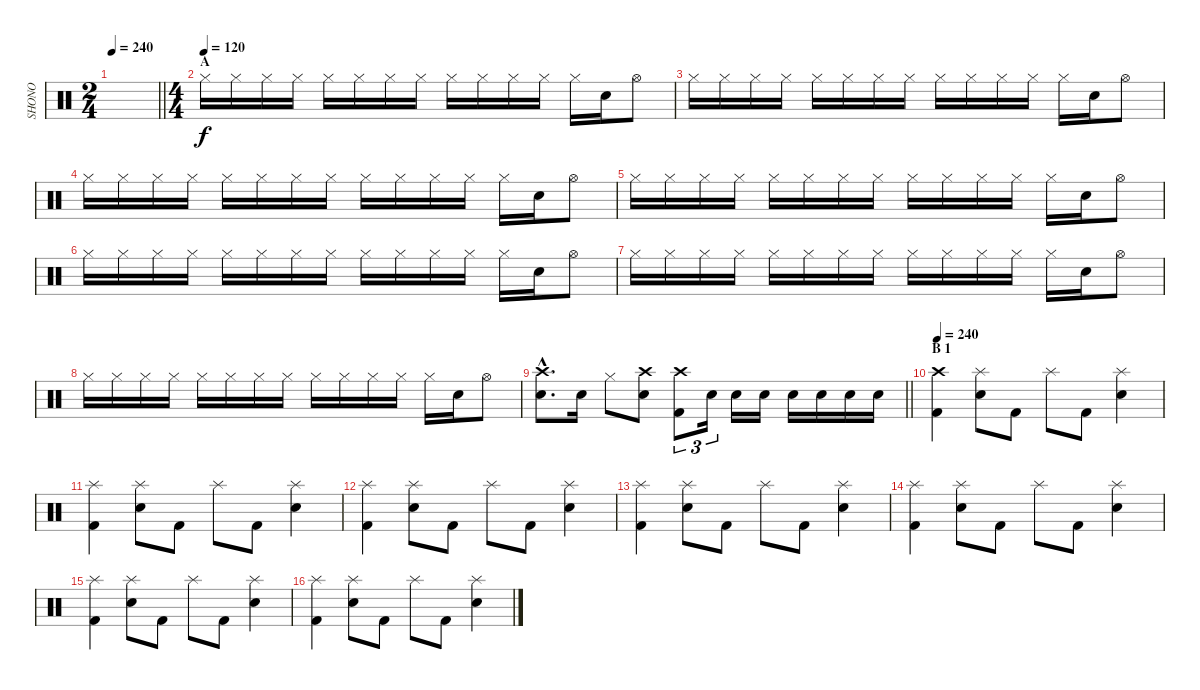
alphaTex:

\track ("SHONO" "SHONO") {instrument percussion}
\staff {score}
\articulation defaults
\ts (2 4)
\tempo 240
\clef neutral
\barLineRight lightlight
\ks c
|
\ts (4 4)
\section ("" "A")
\tempo (120)
"Hi-Hat (closed)".16 "Hi-Hat (closed)".16 "Hi-Hat (closed)".16 "Hi-Hat (closed)".16 "Hi-Hat (closed)".16 "Hi-Hat (closed)".16 "Hi-Hat (closed)".16 "Hi-Hat (closed)".16 "Hi-Hat (closed)".16 "Hi-Hat (closed)".16 "Hi-Hat (closed)".16 "Hi-Hat (closed)".16 "Hi-Hat (closed)".16 "Snare (hit) 2".16 "Hi-Hat (open)".8 |
"Hi-Hat (closed)".16 "Hi-Hat (closed)".16 "Hi-Hat (closed)".16 "Hi-Hat (closed)".16 "Hi-Hat (closed)".16 "Hi-Hat (closed)".16 "Hi-Hat (closed)".16 "Hi-Hat (closed)".16 "Hi-Hat (closed)".16 "Hi-Hat (closed)".16 "Hi-Hat (closed)".16 "Hi-Hat (closed)".16 "Hi-Hat (closed)".16 "Snare (hit) 2".16 "Hi-Hat (open)".8 |
"Hi-Hat (closed)".16 "Hi-Hat (closed)".16 "Hi-Hat (closed)".16 "Hi-Hat (closed)".16 "Hi-Hat (closed)".16 "Hi-Hat (closed)".16 "Hi-Hat (closed)".16 "Hi-Hat (closed)".16 "Hi-Hat (closed)".16 "Hi-Hat (closed)".16 "Hi-Hat (closed)".16 "Hi-Hat (closed)".16 "Hi-Hat (closed)".16 "Snare (hit) 2".16 "Hi-Hat (open)".8 |
"Hi-Hat (closed)".16 "Hi-Hat (closed)".16 "Hi-Hat (closed)".16 "Hi-Hat (closed)".16 "Hi-Hat (closed)".16 "Hi-Hat (closed)".16 "Hi-Hat (closed)".16 "Hi-Hat (closed)".16 "Hi-Hat (closed)".16 "Hi-Hat (closed)".16 "Hi-Hat (closed)".16 "Hi-Hat (closed)".16 "Hi-Hat (closed)".16 "Snare (hit) 2".16 "Hi-Hat (open)".8 |
"Hi-Hat (closed)".16 "Hi-Hat (closed)".16 "Hi-Hat (closed)".16 "Hi-Hat (closed)".16 "Hi-Hat (closed)".16 "Hi-Hat (closed)".16 "Hi-Hat (closed)".16 "Hi-Hat (closed)".16 "Hi-Hat (closed)".16 "Hi-Hat (closed)".16 "Hi-Hat (closed)".16 "Hi-Hat (closed)".16 "Hi-Hat (closed)".16 "Snare (hit) 2".16 "Hi-Hat (open)".8 |
"Hi-Hat (closed)".16 "Hi-Hat (closed)".16 "Hi-Hat (closed)".16 "Hi-Hat (closed)".16 "Hi-Hat (closed)".16 "Hi-Hat (closed)".16 "Hi-Hat (closed)".16 "Hi-Hat (closed)".16 "Hi-Hat (closed)".16 "Hi-Hat (closed)".16 "Hi-Hat (closed)".16 "Hi-Hat (closed)".16 "Hi-Hat (closed)".16 "Snare (hit) 2".16 "Hi-Hat (open)".8 |
"Hi-Hat (closed)".16 "Hi-Hat (closed)".16 "Hi-Hat (closed)".16 "Hi-Hat (closed)".16 "Hi-Hat (closed)".16 "Hi-Hat (closed)".16 "Hi-Hat (closed)".16 "Hi-Hat (closed)".16 "Hi-Hat (closed)".16 "Hi-Hat (closed)".16 "Hi-Hat (closed)".16 "Hi-Hat (closed)".16 "Hi-Hat (closed)".16 "Snare (hit) 2".16 "Hi-Hat (open)".8 |
\barLineRight lightlight
("Crash high (hit)"{hac} "Snare (hit) 2"{hac}).8{d} "Snare (hit) 2".16 "Hi-Hat (closed)".8 ("Crash high (hit)" "Snare (hit) 2").8 ("Crash high (hit)" "Kick (hit) 2").8{tu (3 2)} "Snare (hit) 2".16{tu (3 2)} "Snare (hit) 2".16 "Snare (hit) 2".16 "Snare (hit) 2".16 "Snare (hit) 2".16 "Snare (hit) 2".16 "Snare (hit) 2".16 |
\section ("" "B 1")
\tempo 240
("Crash high (hit)" "Kick (hit) 2").4 ("Splash (hit)" "Snare (hit) 2").8 "Kick (hit) 2".8 "Splash (hit)".8 "Kick (hit) 2".8 ("Splash (hit)" "Snare (hit) 2").4 |
("Splash (hit)" "Kick (hit) 2").4 ("Splash (hit)" "Snare (hit) 2").8 "Kick (hit) 2".8 "Splash (hit)".8 "Kick (hit) 2".8 ("Splash (hit)" "Snare (hit) 2").4 |
("Splash (hit)" "Kick (hit) 2").4 ("Splash (hit)" "Snare (hit) 2").8 "Kick (hit) 2".8 "Splash (hit)".8 "Kick (hit) 2".8 ("Splash (hit)" "Snare (hit) 2").4 |
("Splash (hit)" "Kick (hit) 2").4 ("Splash (hit)" "Snare (hit) 2").8 "Kick (hit) 2".8 "Splash (hit)".8 "Kick (hit) 2".8 ("Splash (hit)" "Snare (hit) 2").4 |
("Splash (hit)" "Kick (hit) 2").4 ("Splash (hit)" "Snare (hit) 2").8 "Kick (hit) 2".8 "Splash (hit)".8 "Kick (hit) 2".8 ("Splash (hit)" "Snare (hit) 2").4 |
("Splash (hit)" "Kick (hit) 2").4 ("Splash (hit)" "Snare (hit) 2").8 "Kick (hit) 2".8 "Splash (hit)".8 "Kick (hit) 2".8 ("Splash (hit)" "Snare (hit) 2").4 |
("Splash (hit)" "Kick (hit) 2").4 ("Splash (hit)" "Snare (hit) 2").8 "Kick (hit) 2".8 "Splash (hit)".8 "Kick (hit) 2".8 ("Splash (hit)" "Snare (hit) 2").4
